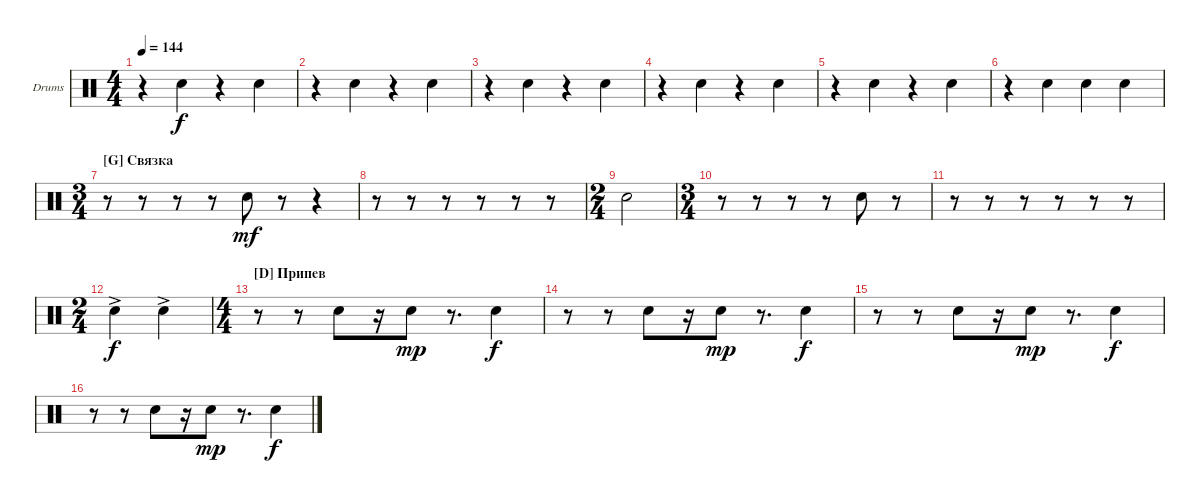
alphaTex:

\defaultSystemsLayout 4
\bracketExtendMode groupsimilarinstruments
\firstSystemTrackNameOrientation horizontal
\otherSystemsTrackNameOrientation horizontal
\track ("Snare" "Drums") {instrument percussion}
\staff {score}
\articulation defaults
\ts (4 4)
\tempo 144
\clef neutral
\ks c
r.4{dy f} "Snare (hit) 2".4 r.4 "Snare (hit) 2".4 |
r.4 "Snare (hit) 2".4 r.4 "Snare (hit) 2".4 |
r.4 "Snare (hit) 2".4 r.4 "Snare (hit) 2".4 |
r.4 "Snare (hit) 2".4 r.4 "Snare (hit) 2".4 |
r.4 "Snare (hit) 2".4 r.4 "Snare (hit) 2".4 |
r.4 "Snare (hit) 2".4 "Snare (hit) 2".4 "Snare (hit) 2".4 |
\ts (3 4)
\section ("G" "Связка")
r.8 r.8 r.8 r.8 "Snare (hit) 2".8{dy mf} r.8 r.4 |
r.8 r.8 r.8 r.8 r.8 r.8 |
\ts (2 4)
"Snare (hit) 2".2 |
\ts (3 4)
r.8 r.8 r.8 r.8 "Snare (hit) 2".8 r.8 |
r.8 r.8 r.8 r.8 r.8 r.8 |
\ts (2 4)
"Snare (hit) 2"{ac}.4{dy f} "Snare (hit) 2"{ac}.4 |
\ts (4 4)
\section ("D" "Припев")
r.8 r.8 "Snare (hit) 2".8 r.16 "Snare (hit) 2".8{dy mp} r.8{d} "Snare (hit) 2".4{dy f} |
r.8 r.8 "Snare (hit) 2".8 r.16 "Snare (hit) 2".8{dy mp} r.8{d} "Snare (hit) 2".4{dy f} |
r.8 r.8 "Snare (hit) 2".8 r.16 "Snare (hit) 2".8{dy mp} r.8{d} "Snare (hit) 2".4{dy f} |
r.8 r.8 "Snare (hit) 2".8 r.16 "Snare (hit) 2".8{dy mp} r.8{d} "Snare (hit) 2".4{dy f}
